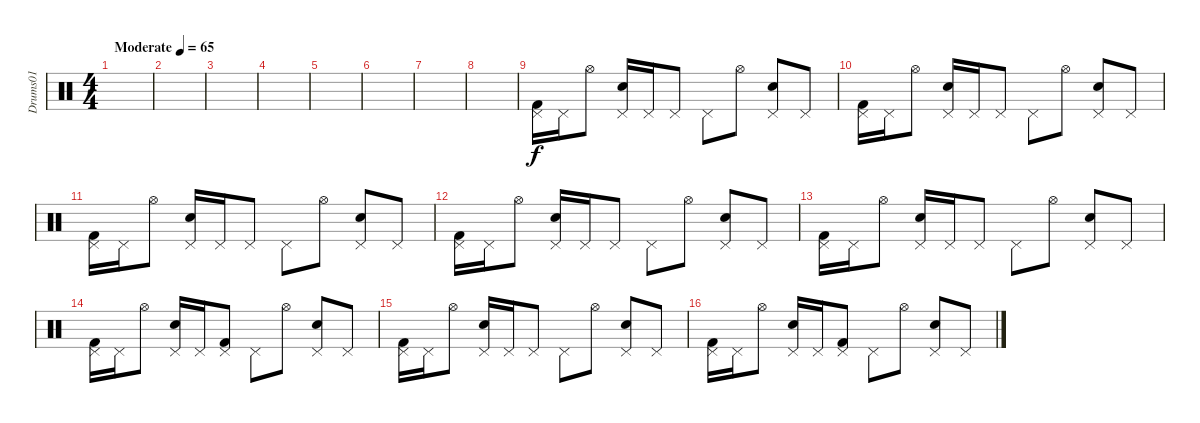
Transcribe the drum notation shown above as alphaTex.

\track ("Drums01" "Drums01") {instrument percussion}
\staff {score}
\articulation defaults
\ts (4 4)
\tempo (65 "Moderate")
\clef neutral
\ks c
|
|
|
|
|
|
|
|
("Pedal Hi-Hat (hit)" "Kick (hit) 2").16 "Pedal Hi-Hat (hit)".16 "Hi-Hat (open)".8 ("Pedal Hi-Hat (hit)" "Snare (hit) 2").16 "Pedal Hi-Hat (hit)".16 "Pedal Hi-Hat (hit)".8 "Pedal Hi-Hat (hit)".8 "Hi-Hat (open)".8 ("Pedal Hi-Hat (hit)" "Snare (hit) 2").8 "Pedal Hi-Hat (hit)".8 |
("Pedal Hi-Hat (hit)" "Kick (hit) 2").16 "Pedal Hi-Hat (hit)".16 "Hi-Hat (open)".8 ("Pedal Hi-Hat (hit)" "Snare (hit) 2").16 "Pedal Hi-Hat (hit)".16 "Pedal Hi-Hat (hit)".8 "Pedal Hi-Hat (hit)".8 "Hi-Hat (open)".8 ("Pedal Hi-Hat (hit)" "Snare (hit) 2").8 "Pedal Hi-Hat (hit)".8 |
("Pedal Hi-Hat (hit)" "Kick (hit) 2").16 "Pedal Hi-Hat (hit)".16 "Hi-Hat (open)".8 ("Pedal Hi-Hat (hit)" "Snare (hit) 2").16 "Pedal Hi-Hat (hit)".16 "Pedal Hi-Hat (hit)".8 "Pedal Hi-Hat (hit)".8 "Hi-Hat (open)".8 ("Pedal Hi-Hat (hit)" "Snare (hit) 2").8 "Pedal Hi-Hat (hit)".8 |
("Pedal Hi-Hat (hit)" "Kick (hit) 2").16 "Pedal Hi-Hat (hit)".16 "Hi-Hat (open)".8 ("Pedal Hi-Hat (hit)" "Snare (hit) 2").16 "Pedal Hi-Hat (hit)".16 "Pedal Hi-Hat (hit)".8 "Pedal Hi-Hat (hit)".8 "Hi-Hat (open)".8 ("Pedal Hi-Hat (hit)" "Snare (hit) 2").8 "Pedal Hi-Hat (hit)".8 |
("Pedal Hi-Hat (hit)" "Kick (hit) 2").16 "Pedal Hi-Hat (hit)".16 "Hi-Hat (open)".8 ("Pedal Hi-Hat (hit)" "Snare (hit) 2").16 "Pedal Hi-Hat (hit)".16 "Pedal Hi-Hat (hit)".8 "Pedal Hi-Hat (hit)".8 "Hi-Hat (open)".8 ("Pedal Hi-Hat (hit)" "Snare (hit) 2").8 "Pedal Hi-Hat (hit)".8 |
("Pedal Hi-Hat (hit)" "Kick (hit) 2").16 "Pedal Hi-Hat (hit)".16 "Hi-Hat (open)".8 ("Pedal Hi-Hat (hit)" "Snare (hit) 2").16 "Pedal Hi-Hat (hit)".16 ("Pedal Hi-Hat (hit)" "Kick (hit) 2").8 "Pedal Hi-Hat (hit)".8 "Hi-Hat (open)".8 ("Pedal Hi-Hat (hit)" "Snare (hit) 2").8 "Pedal Hi-Hat (hit)".8 |
("Pedal Hi-Hat (hit)" "Kick (hit) 2").16 "Pedal Hi-Hat (hit)".16 "Hi-Hat (open)".8 ("Pedal Hi-Hat (hit)" "Snare (hit) 2").16 "Pedal Hi-Hat (hit)".16 "Pedal Hi-Hat (hit)".8 "Pedal Hi-Hat (hit)".8 "Hi-Hat (open)".8 ("Pedal Hi-Hat (hit)" "Snare (hit) 2").8 "Pedal Hi-Hat (hit)".8 |
("Pedal Hi-Hat (hit)" "Kick (hit) 2").16 "Pedal Hi-Hat (hit)".16 "Hi-Hat (open)".8 ("Pedal Hi-Hat (hit)" "Snare (hit) 2").16 "Pedal Hi-Hat (hit)".16 ("Pedal Hi-Hat (hit)" "Kick (hit) 2").8 "Pedal Hi-Hat (hit)".8 "Hi-Hat (open)".8 ("Pedal Hi-Hat (hit)" "Snare (hit) 2").8 "Pedal Hi-Hat (hit)".8
